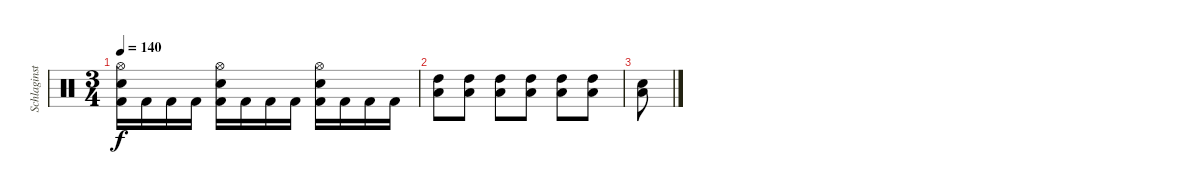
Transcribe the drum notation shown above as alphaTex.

\track ("Schlaginstrumente - Auswahl" "Schlaginst") {instrument percussion}
\staff {score}
\articulation defaults
\ts (3 4)
\tempo 140
\clef neutral
\ks c
("Hi-Hat (open)" "Electric Snare (hit)" "Kick (hit) 2").16{dy f} "Kick (hit) 2".16 "Kick (hit) 2".16 "Kick (hit) 2".16 ("Hi-Hat (open)" "Electric Snare (hit)" "Kick (hit) 2").16 "Kick (hit) 2".16 "Kick (hit) 2".16 "Kick (hit) 2".16 ("Hi-Hat (open)" "Electric Snare (hit)" "Kick (hit) 2").16 "Kick (hit) 2".16 "Kick (hit) 2".16 "Kick (hit) 2".16 |
("High Tom (hit)" "Low Tom (hit)").8 ("High Tom (hit)" "Low Tom (hit)").8 ("High Tom (hit)" "Low Tom (hit)").8 ("High Tom (hit)" "Low Tom (hit)").8 ("High Tom (hit)" "Low Tom (hit)").8 ("High Tom (hit)" "Low Tom (hit)").8 |
("Electric Snare (hit)" "Low Tom (hit)").8
